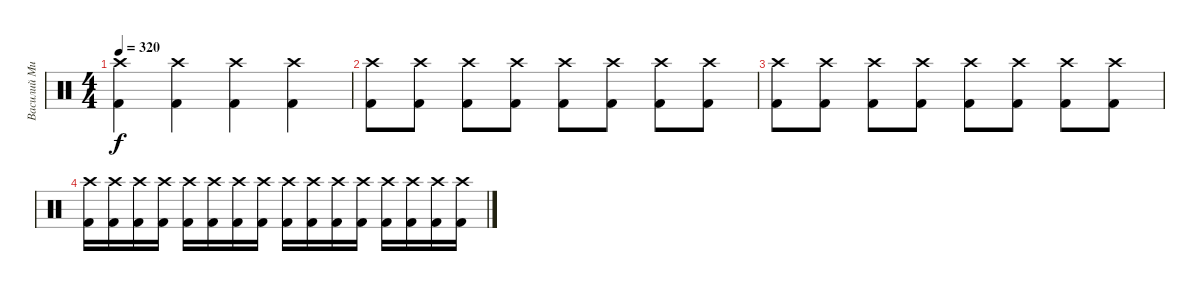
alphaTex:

\track ("Василий Михалыч-ударные" "Василий Ми") {instrument percussion}
\staff {score}
\articulation defaults
\ts (4 4)
\tempo 320
\clef neutral
\ks c
("Kick (hit) 2" "Crash high (hit)").4{dy f} ("Kick (hit) 2" "Crash high (hit)").4 ("Kick (hit) 2" "Crash high (hit)").4 ("Kick (hit) 2" "Crash high (hit)").4 |
("Kick (hit) 2" "Crash high (hit)").8 ("Kick (hit) 2" "Crash high (hit)").8 ("Kick (hit) 2" "Crash high (hit)").8 ("Kick (hit) 2" "Crash high (hit)").8 ("Kick (hit) 2" "Crash high (hit)").8 ("Kick (hit) 2" "Crash high (hit)").8 ("Kick (hit) 2" "Crash high (hit)").8 ("Kick (hit) 2" "Crash high (hit)").8 |
("Kick (hit) 2" "Crash high (hit)").8 ("Kick (hit) 2" "Crash high (hit)").8 ("Kick (hit) 2" "Crash high (hit)").8 ("Kick (hit) 2" "Crash high (hit)").8 ("Kick (hit) 2" "Crash high (hit)").8 ("Kick (hit) 2" "Crash high (hit)").8 ("Kick (hit) 2" "Crash high (hit)").8 ("Kick (hit) 2" "Crash high (hit)").8 |
("Kick (hit) 2" "Crash high (hit)").16 ("Kick (hit) 2" "Crash high (hit)").16 ("Kick (hit) 2" "Crash high (hit)").16 ("Kick (hit) 2" "Crash high (hit)").16 ("Kick (hit) 2" "Crash high (hit)").16 ("Kick (hit) 2" "Crash high (hit)").16 ("Kick (hit) 2" "Crash high (hit)").16 ("Kick (hit) 2" "Crash high (hit)").16 ("Kick (hit) 2" "Crash high (hit)").16 ("Kick (hit) 2" "Crash high (hit)").16 ("Kick (hit) 2" "Crash high (hit)").16 ("Kick (hit) 2" "Crash high (hit)").16 ("Kick (hit) 2" "Crash high (hit)").16 ("Kick (hit) 2" "Crash high (hit)").16 ("Kick (hit) 2" "Crash high (hit)").16 ("Kick (hit) 2" "Crash high (hit)").16
